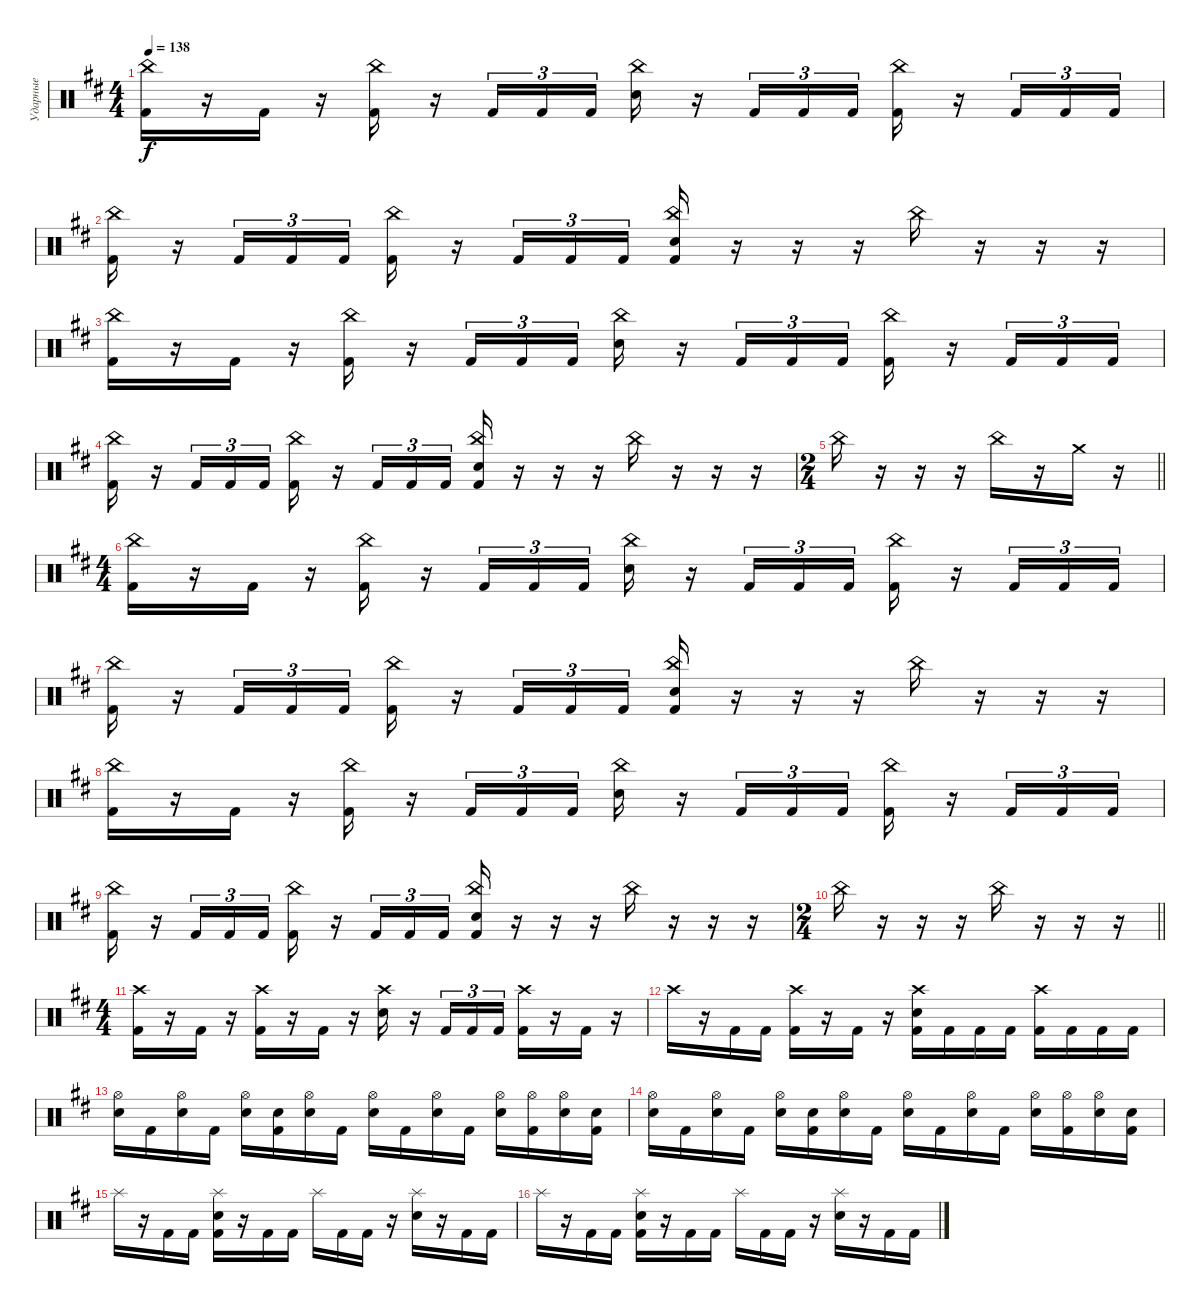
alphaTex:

\track ("Ударные" "Ударные") {instrument percussion}
\staff {score}
\articulation defaults
\ts (4 4)
\tempo 138
\clef neutral
\ks bminor
("Kick (hit) 2" "China (hit)").16{dy f} r.16 "Kick (hit) 2".16 r.16 ("Kick (hit) 2" "China (hit)").16 r.16 "Kick (hit) 2".16{tu (3 2)} "Kick (hit) 2".16{tu (3 2)} "Kick (hit) 2".16{tu (3 2)} ("China (hit)" "Electric Snare (hit)").16 r.16 "Kick (hit) 2".16{tu (3 2)} "Kick (hit) 2".16{tu (3 2)} "Kick (hit) 2".16{tu (3 2)} ("Kick (hit) 2" "China (hit)").16 r.16 "Kick (hit) 2".16{tu (3 2)} "Kick (hit) 2".16{tu (3 2)} "Kick (hit) 2".16{tu (3 2)} |
("China (hit)" "Kick (hit) 2").16 r.16 "Kick (hit) 2".16{tu (3 2)} "Kick (hit) 2".16{tu (3 2)} "Kick (hit) 2".16{tu (3 2)} ("Kick (hit) 2" "China (hit)").16 r.16 "Kick (hit) 2".16{tu (3 2)} "Kick (hit) 2".16{tu (3 2)} "Kick (hit) 2".16{tu (3 2)} ("Kick (hit) 2" "China (hit)" "Electric Snare (hit)").16 r.16 r.16 r.16 "China (hit)".16 r.16 r.16 r.16 |
("Kick (hit) 2" "China (hit)").16 r.16 "Kick (hit) 2".16 r.16 ("Kick (hit) 2" "China (hit)").16 r.16 "Kick (hit) 2".16{tu (3 2)} "Kick (hit) 2".16{tu (3 2)} "Kick (hit) 2".16{tu (3 2)} ("China (hit)" "Electric Snare (hit)").16 r.16 "Kick (hit) 2".16{tu (3 2)} "Kick (hit) 2".16{tu (3 2)} "Kick (hit) 2".16{tu (3 2)} ("Kick (hit) 2" "China (hit)").16 r.16 "Kick (hit) 2".16{tu (3 2)} "Kick (hit) 2".16{tu (3 2)} "Kick (hit) 2".16{tu (3 2)} |
("China (hit)" "Kick (hit) 2").16 r.16 "Kick (hit) 2".16{tu (3 2)} "Kick (hit) 2".16{tu (3 2)} "Kick (hit) 2".16{tu (3 2)} ("Kick (hit) 2" "China (hit)").16 r.16 "Kick (hit) 2".16{tu (3 2)} "Kick (hit) 2".16{tu (3 2)} "Kick (hit) 2".16{tu (3 2)} ("Kick (hit) 2" "China (hit)" "Electric Snare (hit)").16 r.16 r.16 r.16 "China (hit)".16 r.16 r.16 r.16 |
\ts (2 4)
\barLineRight lightlight "China (hit)".16
r.16 r.16 r.16 "China (hit)".16 r.16 "Crash medium (hit)".16 r.16 |
\ts (4 4)
("Kick (hit) 2" "China (hit)").16 r.16 "Kick (hit) 2".16 r.16 ("Kick (hit) 2" "China (hit)").16 r.16 "Kick (hit) 2".16{tu (3 2)} "Kick (hit) 2".16{tu (3 2)} "Kick (hit) 2".16{tu (3 2)} ("China (hit)" "Electric Snare (hit)").16 r.16 "Kick (hit) 2".16{tu (3 2)} "Kick (hit) 2".16{tu (3 2)} "Kick (hit) 2".16{tu (3 2)} ("Kick (hit) 2" "China (hit)").16 r.16 "Kick (hit) 2".16{tu (3 2)} "Kick (hit) 2".16{tu (3 2)} "Kick (hit) 2".16{tu (3 2)} |
("China (hit)" "Kick (hit) 2").16 r.16 "Kick (hit) 2".16{tu (3 2)} "Kick (hit) 2".16{tu (3 2)} "Kick (hit) 2".16{tu (3 2)} ("Kick (hit) 2" "China (hit)").16 r.16 "Kick (hit) 2".16{tu (3 2)} "Kick (hit) 2".16{tu (3 2)} "Kick (hit) 2".16{tu (3 2)} ("Kick (hit) 2" "China (hit)" "Electric Snare (hit)").16 r.16 r.16 r.16 "China (hit)".16 r.16 r.16 r.16 |
("Kick (hit) 2" "China (hit)").16 r.16 "Kick (hit) 2".16 r.16 ("Kick (hit) 2" "China (hit)").16 r.16 "Kick (hit) 2".16{tu (3 2)} "Kick (hit) 2".16{tu (3 2)} "Kick (hit) 2".16{tu (3 2)} ("China (hit)" "Electric Snare (hit)").16 r.16 "Kick (hit) 2".16{tu (3 2)} "Kick (hit) 2".16{tu (3 2)} "Kick (hit) 2".16{tu (3 2)} ("Kick (hit) 2" "China (hit)").16 r.16 "Kick (hit) 2".16{tu (3 2)} "Kick (hit) 2".16{tu (3 2)} "Kick (hit) 2".16{tu (3 2)} |
("China (hit)" "Kick (hit) 2").16 r.16 "Kick (hit) 2".16{tu (3 2)} "Kick (hit) 2".16{tu (3 2)} "Kick (hit) 2".16{tu (3 2)} ("Kick (hit) 2" "China (hit)").16 r.16 "Kick (hit) 2".16{tu (3 2)} "Kick (hit) 2".16{tu (3 2)} "Kick (hit) 2".16{tu (3 2)} ("Kick (hit) 2" "China (hit)" "Electric Snare (hit)").16 r.16 r.16 r.16 "China (hit)".16 r.16 r.16 r.16 |
\ts (2 4)
\barLineRight lightlight "China (hit)".16
r.16 r.16 r.16 "China (hit)".16 r.16 r.16 r.16 |
\ts (4 4)
("Kick (hit) 2" "Crash high (hit)").16 r.16 "Kick (hit) 2".16 r.16 ("Kick (hit) 2" "Crash high (hit)").16 r.16 "Kick (hit) 2".16 r.16 ("Crash high (hit)" "Electric Snare (hit)").16 r.16 "Kick (hit) 2".16{tu (3 2)} "Kick (hit) 2".16{tu (3 2)} "Kick (hit) 2".16{tu (3 2)} ("Kick (hit) 2" "Crash high (hit)").16 r.16 "Kick (hit) 2".16 r.16 |
"Crash high (hit)".16 r.16 "Kick (hit) 2".16 "Kick (hit) 2".16 ("Kick (hit) 2" "Crash high (hit)").16 r.16 "Kick (hit) 2".16 r.16 ("Kick (hit) 2" "Crash high (hit)" "Electric Snare (hit)").16 "Kick (hit) 2".16 "Kick (hit) 2".16 "Kick (hit) 2".16 ("Kick (hit) 2" "Crash high (hit)").16 "Kick (hit) 2".16 "Kick (hit) 2".16 "Kick (hit) 2".16 |
("Electric Snare (hit)" "Hi-Hat (open)").16 "Kick (hit) 2".16 ("Electric Snare (hit)" "Hi-Hat (open)").16 "Kick (hit) 2".16 ("Electric Snare (hit)" "Hi-Hat (open)").16 ("Kick (hit) 2" "Electric Snare (hit)").16 ("Electric Snare (hit)" "Hi-Hat (open)").16 "Kick (hit) 2".16 ("Electric Snare (hit)" "Hi-Hat (open)").16 "Kick (hit) 2".16 ("Electric Snare (hit)" "Hi-Hat (open)").16 "Kick (hit) 2".16 ("Electric Snare (hit)" "Hi-Hat (open)").16 ("Kick (hit) 2" "Hi-Hat (open)").16 ("Electric Snare (hit)" "Hi-Hat (open)").16 ("Kick (hit) 2" "Electric Snare (hit)").16 |
("Electric Snare (hit)" "Hi-Hat (open)").16 "Kick (hit) 2".16 ("Electric Snare (hit)" "Hi-Hat (open)").16 "Kick (hit) 2".16 ("Electric Snare (hit)" "Hi-Hat (open)").16 ("Kick (hit) 2" "Electric Snare (hit)").16 ("Electric Snare (hit)" "Hi-Hat (open)").16 "Kick (hit) 2".16 ("Electric Snare (hit)" "Hi-Hat (open)").16 "Kick (hit) 2".16 ("Electric Snare (hit)" "Hi-Hat (open)").16 "Kick (hit) 2".16 ("Electric Snare (hit)" "Hi-Hat (open)").16 ("Kick (hit) 2" "Hi-Hat (open)").16 ("Electric Snare (hit)" "Hi-Hat (open)").16 ("Kick (hit) 2" "Electric Snare (hit)").16 |
"Splash (hit)".16 r.16 "Kick (hit) 2".16 "Kick (hit) 2".16 ("Splash (hit)" "Electric Snare (hit)" "Kick (hit) 2").16 r.16 "Kick (hit) 2".16 "Kick (hit) 2".16 "Splash (hit)".16 "Kick (hit) 2".16 "Kick (hit) 2".16 r.16 ("Splash (hit)" "Electric Snare (hit)").16 r.16 "Kick (hit) 2".16 "Kick (hit) 2".16 |
"Splash (hit)".16 r.16 "Kick (hit) 2".16 "Kick (hit) 2".16 ("Splash (hit)" "Electric Snare (hit)" "Kick (hit) 2").16 r.16 "Kick (hit) 2".16 "Kick (hit) 2".16 "Splash (hit)".16 "Kick (hit) 2".16 "Kick (hit) 2".16 r.16 ("Splash (hit)" "Electric Snare (hit)").16 r.16 "Kick (hit) 2".16 "Kick (hit) 2".16
